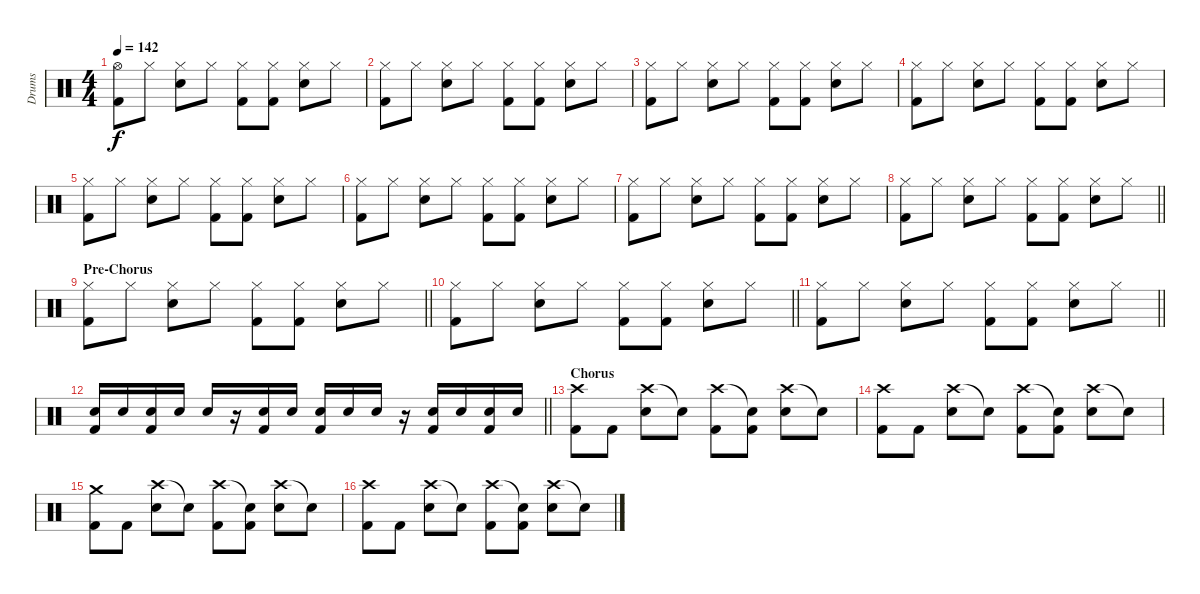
\track ("Drums" "Drums") {instrument percussion}
\staff {score}
\articulation defaults
\ts (4 4)
\tempo 142
\clef neutral
\ks c
("Hi-Hat (open)" "Kick (hit) 2").8{dy f} "Hi-Hat (closed)".8 ("Hi-Hat (closed)" "Electric Snare (hit)").8 "Hi-Hat (closed)".8 ("Hi-Hat (closed)" "Kick (hit) 2").8 ("Hi-Hat (closed)" "Kick (hit) 2").8 ("Hi-Hat (closed)" "Electric Snare (hit)").8 "Hi-Hat (closed)".8 |
("Hi-Hat (closed)" "Kick (hit) 2").8 "Hi-Hat (closed)".8 ("Hi-Hat (closed)" "Electric Snare (hit)").8 "Hi-Hat (closed)".8 ("Hi-Hat (closed)" "Kick (hit) 2").8 ("Hi-Hat (closed)" "Kick (hit) 2").8 ("Hi-Hat (closed)" "Electric Snare (hit)").8 "Hi-Hat (closed)".8 |
("Hi-Hat (closed)" "Kick (hit) 2").8 "Hi-Hat (closed)".8 ("Hi-Hat (closed)" "Electric Snare (hit)").8 "Hi-Hat (closed)".8 ("Hi-Hat (closed)" "Kick (hit) 2").8 ("Hi-Hat (closed)" "Kick (hit) 2").8 ("Hi-Hat (closed)" "Electric Snare (hit)").8 "Hi-Hat (closed)".8 |
("Hi-Hat (closed)" "Kick (hit) 2").8 "Hi-Hat (closed)".8 ("Hi-Hat (closed)" "Electric Snare (hit)").8 "Hi-Hat (closed)".8 ("Hi-Hat (closed)" "Kick (hit) 2").8 ("Hi-Hat (closed)" "Kick (hit) 2").8 ("Hi-Hat (closed)" "Electric Snare (hit)").8 "Hi-Hat (closed)".8 |
("Hi-Hat (closed)" "Kick (hit) 2").8 "Hi-Hat (closed)".8 ("Hi-Hat (closed)" "Electric Snare (hit)").8 "Hi-Hat (closed)".8 ("Hi-Hat (closed)" "Kick (hit) 2").8 ("Hi-Hat (closed)" "Kick (hit) 2").8 ("Hi-Hat (closed)" "Electric Snare (hit)").8 "Hi-Hat (closed)".8 |
("Hi-Hat (closed)" "Kick (hit) 2").8 "Hi-Hat (closed)".8 ("Hi-Hat (closed)" "Electric Snare (hit)").8 "Hi-Hat (closed)".8 ("Hi-Hat (closed)" "Kick (hit) 2").8 ("Hi-Hat (closed)" "Kick (hit) 2").8 ("Hi-Hat (closed)" "Electric Snare (hit)").8 "Hi-Hat (closed)".8 |
("Hi-Hat (closed)" "Kick (hit) 2").8 "Hi-Hat (closed)".8 ("Hi-Hat (closed)" "Electric Snare (hit)").8 "Hi-Hat (closed)".8 ("Hi-Hat (closed)" "Kick (hit) 2").8 ("Hi-Hat (closed)" "Kick (hit) 2").8 ("Hi-Hat (closed)" "Electric Snare (hit)").8 "Hi-Hat (closed)".8 |
\barLineRight lightlight
("Hi-Hat (closed)" "Kick (hit) 2").8 "Hi-Hat (closed)".8 ("Hi-Hat (closed)" "Electric Snare (hit)").8 "Hi-Hat (closed)".8 ("Hi-Hat (closed)" "Kick (hit) 2").8 ("Hi-Hat (closed)" "Kick (hit) 2").8 ("Hi-Hat (closed)" "Electric Snare (hit)").8 "Hi-Hat (closed)".8 |
\section ("" "Pre-Chorus")
\barLineRight lightlight
("Hi-Hat (closed)" "Kick (hit) 2").8 "Hi-Hat (closed)".8 ("Hi-Hat (closed)" "Electric Snare (hit)").8 "Hi-Hat (closed)".8 ("Hi-Hat (closed)" "Kick (hit) 2").8 ("Hi-Hat (closed)" "Kick (hit) 2").8 ("Hi-Hat (closed)" "Electric Snare (hit)").8 "Hi-Hat (closed)".8 |
\barLineRight lightlight
("Hi-Hat (closed)" "Kick (hit) 2").8 "Hi-Hat (closed)".8 ("Hi-Hat (closed)" "Electric Snare (hit)").8 "Hi-Hat (closed)".8 ("Hi-Hat (closed)" "Kick (hit) 2").8 ("Hi-Hat (closed)" "Kick (hit) 2").8 ("Hi-Hat (closed)" "Electric Snare (hit)").8 "Hi-Hat (closed)".8 |
\barLineRight lightlight
("Hi-Hat (closed)" "Kick (hit) 2").8 "Hi-Hat (closed)".8 ("Hi-Hat (closed)" "Electric Snare (hit)").8 "Hi-Hat (closed)".8 ("Hi-Hat (closed)" "Kick (hit) 2").8 ("Hi-Hat (closed)" "Kick (hit) 2").8 ("Hi-Hat (closed)" "Electric Snare (hit)").8 "Hi-Hat (closed)".8 |
\barLineRight lightlight
("Electric Snare (hit)" "Kick (hit) 2").16 "Electric Snare (hit)".16 ("Electric Snare (hit)" "Kick (hit) 2").16 "Electric Snare (hit)".16 "Electric Snare (hit)".16 r.16 ("Electric Snare (hit)" "Kick (hit) 2").16 "Electric Snare (hit)".16 ("Electric Snare (hit)" "Kick (hit) 2").16 "Electric Snare (hit)".16 "Electric Snare (hit)".16 r.16 ("Electric Snare (hit)" "Kick (hit) 2").16 "Electric Snare (hit)".16 ("Electric Snare (hit)" "Kick (hit) 2").16 "Electric Snare (hit)".16 |
\section ("" "Chorus")
("Crash high (hit)" "Kick (hit) 2").8 "Kick (hit) 2".8 ("Crash high (hit)" "Electric Snare (hit)").8 "Snare (hit)"{t}.8 ("Crash high (hit)" "Kick (hit) 2").8 ("Snare (hit)"{t} "Kick (hit) 2").8 ("Crash high (hit)" "Electric Snare (hit)").8 "Snare (hit)"{t}.8 |
("Crash high (hit)" "Kick (hit) 2").8 "Kick (hit) 2".8 ("Crash high (hit)" "Electric Snare (hit)").8 "Snare (hit)"{t}.8 ("Crash high (hit)" "Kick (hit) 2").8 ("Snare (hit)"{t} "Kick (hit) 2").8 ("Crash high (hit)" "Electric Snare (hit)").8 "Snare (hit)"{t}.8 |
("Crash medium (hit)" "Kick (hit) 2").8 "Kick (hit) 2".8 ("Crash high (hit)" "Electric Snare (hit)").8 "Snare (hit)"{t}.8 ("Crash high (hit)" "Kick (hit) 2").8 ("Snare (hit)"{t} "Kick (hit) 2").8 ("Crash high (hit)" "Electric Snare (hit)").8 "Snare (hit)"{t}.8 |
("Crash high (hit)" "Kick (hit) 2").8 "Kick (hit) 2".8 ("Crash high (hit)" "Electric Snare (hit)").8 "Snare (hit)"{t}.8 ("Crash high (hit)" "Kick (hit) 2").8 ("Snare (hit)"{t} "Kick (hit) 2").8 ("Crash high (hit)" "Electric Snare (hit)").8 "Snare (hit)"{t}.8
